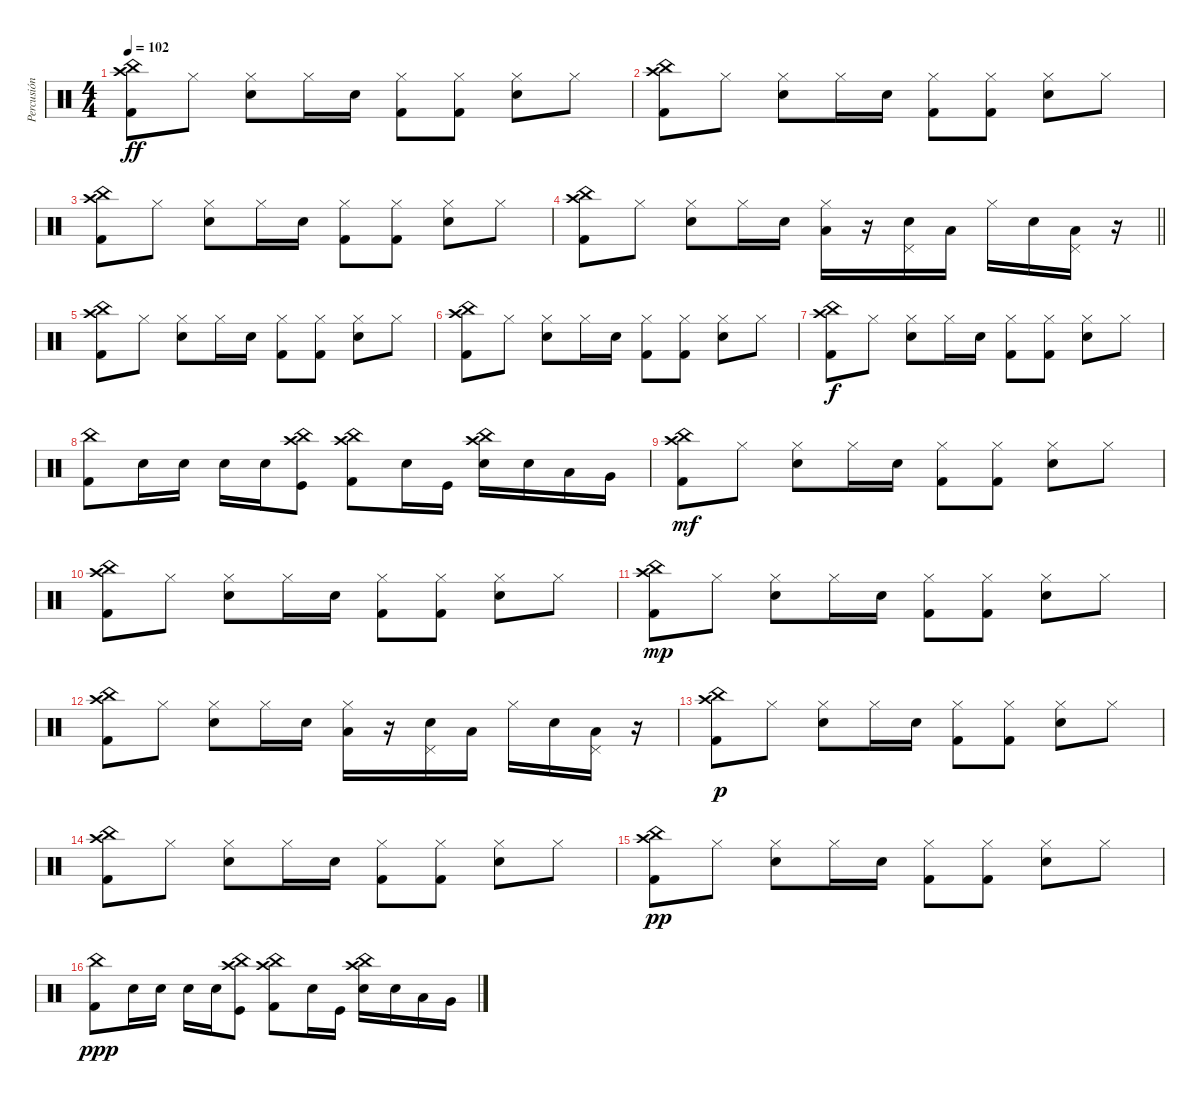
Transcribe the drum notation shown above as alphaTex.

\track ("Percusión" "Percusión") {instrument percussion}
\staff {score}
\articulation defaults
\ts (4 4)
\tempo 102
\clef neutral
\ks c
("Kick (hit) 2" "China (hit)" "Crash high (hit)").8{dy ff} "Hi-Hat (closed)".8 ("Electric Snare (hit)" "Hi-Hat (closed)").8 "Hi-Hat (closed)".16 "Electric Snare (hit)".16 ("Kick (hit) 2" "Hi-Hat (closed)").8 ("Kick (hit) 2" "Hi-Hat (closed)").8 ("Electric Snare (hit)" "Hi-Hat (closed)").8 "Hi-Hat (closed)".8 |
("Kick (hit) 2" "China (hit)" "Crash high (hit)").8 "Hi-Hat (closed)".8 ("Electric Snare (hit)" "Hi-Hat (closed)").8 "Hi-Hat (closed)".16 "Electric Snare (hit)".16 ("Kick (hit) 2" "Hi-Hat (closed)").8 ("Kick (hit) 2" "Hi-Hat (closed)").8 ("Electric Snare (hit)" "Hi-Hat (closed)").8 "Hi-Hat (closed)".8 |
("Kick (hit) 2" "China (hit)" "Crash high (hit)").8 "Hi-Hat (closed)".8 ("Electric Snare (hit)" "Hi-Hat (closed)").8 "Hi-Hat (closed)".16 "Electric Snare (hit)".16 ("Kick (hit) 2" "Hi-Hat (closed)").8 ("Kick (hit) 2" "Hi-Hat (closed)").8 ("Electric Snare (hit)" "Hi-Hat (closed)").8 "Hi-Hat (closed)".8 |
\barLineRight lightlight
("Kick (hit) 2" "China (hit)" "Crash high (hit)").8 "Hi-Hat (closed)".8 ("Electric Snare (hit)" "Hi-Hat (closed)").8 "Hi-Hat (closed)".16 "Electric Snare (hit)".16 ("Low Tom (hit)" "Hi-Hat (closed)").16 r.16 ("Electric Snare (hit)" "Pedal Hi-Hat (hit)").16 "Low Tom (hit)".16 "Hi-Hat (closed)".16 "Electric Snare (hit)".16 ("Low Tom (hit)" "Pedal Hi-Hat (hit)").16 r.16 |
("Kick (hit) 2" "China (hit)" "Crash high (hit)").8 "Hi-Hat (closed)".8 ("Electric Snare (hit)" "Hi-Hat (closed)").8 "Hi-Hat (closed)".16 "Electric Snare (hit)".16 ("Kick (hit) 2" "Hi-Hat (closed)").8 ("Kick (hit) 2" "Hi-Hat (closed)").8 ("Electric Snare (hit)" "Hi-Hat (closed)").8 "Hi-Hat (closed)".8 |
("Kick (hit) 2" "China (hit)" "Crash high (hit)").8 "Hi-Hat (closed)".8 ("Electric Snare (hit)" "Hi-Hat (closed)").8 "Hi-Hat (closed)".16 "Electric Snare (hit)".16 ("Kick (hit) 2" "Hi-Hat (closed)").8 ("Kick (hit) 2" "Hi-Hat (closed)").8 ("Electric Snare (hit)" "Hi-Hat (closed)").8 "Hi-Hat (closed)".8 |
("Kick (hit) 2" "China (hit)" "Crash high (hit)").8{dy f} "Hi-Hat (closed)".8 ("Electric Snare (hit)" "Hi-Hat (closed)").8 "Hi-Hat (closed)".16 "Electric Snare (hit)".16 ("Kick (hit) 2" "Hi-Hat (closed)").8 ("Kick (hit) 2" "Hi-Hat (closed)").8 ("Electric Snare (hit)" "Hi-Hat (closed)").8 "Hi-Hat (closed)".8 |
("Kick (hit) 2" "China (hit)").8 "Electric Snare (hit)".16 "Electric Snare (hit)".16 "Electric Snare (hit)".16 "Electric Snare (hit)".16 ("Kick (hit)" "China (hit)" "Crash high (hit)").8 ("Kick (hit) 2" "China (hit)" "Crash high (hit)").8 "Electric Snare (hit)".16 "Kick (hit)".16 ("Electric Snare (hit)" "China (hit)" "Crash high (hit)").16 "Electric Snare (hit)".16 "Low Floor Tom (hit)".16 "Very Low Tom (hit)".16 |
("Kick (hit) 2" "China (hit)" "Crash high (hit)").8{dy mf} "Hi-Hat (closed)".8 ("Electric Snare (hit)" "Hi-Hat (closed)").8 "Hi-Hat (closed)".16 "Electric Snare (hit)".16 ("Kick (hit) 2" "Hi-Hat (closed)").8 ("Kick (hit) 2" "Hi-Hat (closed)").8 ("Electric Snare (hit)" "Hi-Hat (closed)").8 "Hi-Hat (closed)".8 |
("Kick (hit) 2" "China (hit)" "Crash high (hit)").8 "Hi-Hat (closed)".8 ("Electric Snare (hit)" "Hi-Hat (closed)").8 "Hi-Hat (closed)".16 "Electric Snare (hit)".16 ("Kick (hit) 2" "Hi-Hat (closed)").8 ("Kick (hit) 2" "Hi-Hat (closed)").8 ("Electric Snare (hit)" "Hi-Hat (closed)").8 "Hi-Hat (closed)".8 |
("Kick (hit) 2" "China (hit)" "Crash high (hit)").8{dy mp} "Hi-Hat (closed)".8 ("Electric Snare (hit)" "Hi-Hat (closed)").8 "Hi-Hat (closed)".16 "Electric Snare (hit)".16 ("Kick (hit) 2" "Hi-Hat (closed)").8 ("Kick (hit) 2" "Hi-Hat (closed)").8 ("Electric Snare (hit)" "Hi-Hat (closed)").8 "Hi-Hat (closed)".8 |
("Kick (hit) 2" "China (hit)" "Crash high (hit)").8 "Hi-Hat (closed)".8 ("Electric Snare (hit)" "Hi-Hat (closed)").8 "Hi-Hat (closed)".16 "Electric Snare (hit)".16 ("Low Tom (hit)" "Hi-Hat (closed)").16 r.16 ("Electric Snare (hit)" "Pedal Hi-Hat (hit)").16 "Low Tom (hit)".16 "Hi-Hat (closed)".16 "Electric Snare (hit)".16 ("Low Tom (hit)" "Pedal Hi-Hat (hit)").16 r.16 |
("Kick (hit) 2" "China (hit)" "Crash high (hit)").8{dy p} "Hi-Hat (closed)".8 ("Electric Snare (hit)" "Hi-Hat (closed)").8 "Hi-Hat (closed)".16 "Electric Snare (hit)".16 ("Kick (hit) 2" "Hi-Hat (closed)").8 ("Kick (hit) 2" "Hi-Hat (closed)").8 ("Electric Snare (hit)" "Hi-Hat (closed)").8 "Hi-Hat (closed)".8 |
("Kick (hit) 2" "China (hit)" "Crash high (hit)").8 "Hi-Hat (closed)".8 ("Electric Snare (hit)" "Hi-Hat (closed)").8 "Hi-Hat (closed)".16 "Electric Snare (hit)".16 ("Kick (hit) 2" "Hi-Hat (closed)").8 ("Kick (hit) 2" "Hi-Hat (closed)").8 ("Electric Snare (hit)" "Hi-Hat (closed)").8 "Hi-Hat (closed)".8 |
("Kick (hit) 2" "China (hit)" "Crash high (hit)").8{dy pp} "Hi-Hat (closed)".8 ("Electric Snare (hit)" "Hi-Hat (closed)").8 "Hi-Hat (closed)".16 "Electric Snare (hit)".16 ("Kick (hit) 2" "Hi-Hat (closed)").8 ("Kick (hit) 2" "Hi-Hat (closed)").8 ("Electric Snare (hit)" "Hi-Hat (closed)").8 "Hi-Hat (closed)".8 |
("Kick (hit) 2" "China (hit)").8{dy ppp} "Electric Snare (hit)".16 "Electric Snare (hit)".16 "Electric Snare (hit)".16 "Electric Snare (hit)".16 ("Kick (hit)" "China (hit)" "Crash high (hit)").8 ("Kick (hit) 2" "China (hit)" "Crash high (hit)").8 "Electric Snare (hit)".16 "Kick (hit)".16 ("Electric Snare (hit)" "China (hit)" "Crash high (hit)").16 "Electric Snare (hit)".16 "Low Floor Tom (hit)".16 "Very Low Tom (hit)".16
